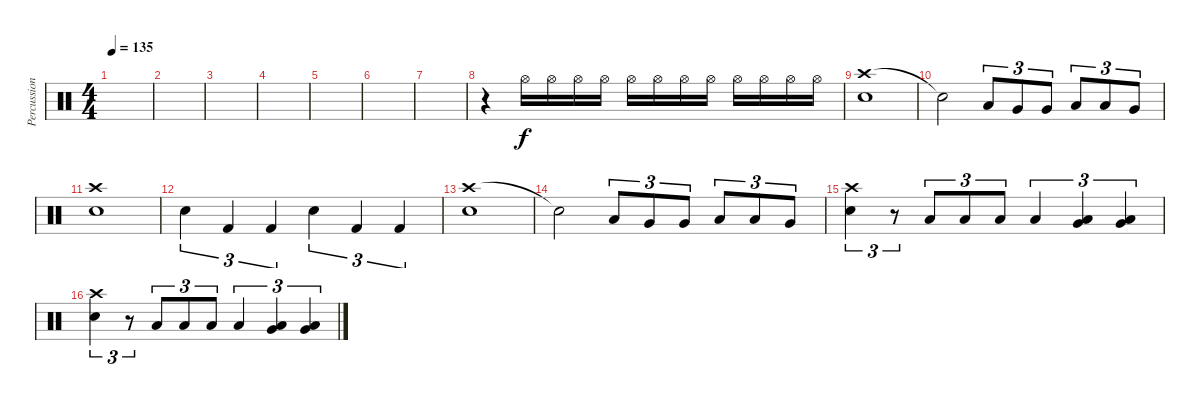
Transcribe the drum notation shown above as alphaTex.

\track ("Percussions" "Percussion") {instrument percussion}
\staff {score}
\articulation defaults
\ts (4 4)
\tempo 135
\clef neutral
\ks c
|
|
|
|
|
|
|
r.4{volume 0} "Hi-Hat (open)".16{volume 12} "Hi-Hat (open)".16 "Hi-Hat (open)".16 "Hi-Hat (open)".16 "Hi-Hat (open)".16 "Hi-Hat (open)".16 "Hi-Hat (open)".16 "Hi-Hat (open)".16 "Hi-Hat (open)".16 "Hi-Hat (open)".16 "Hi-Hat (open)".16 "Hi-Hat (open)".16 |
("Crash high (hit)" "Snare (hit) 2").1{volume 13} |
"Snare (hit)"{t}.2 "Low Floor Tom (hit)".8{tu (3 2)} "Very Low Tom (hit)".8{tu (3 2)} "Very Low Tom (hit)".8{tu (3 2)} "Low Tom (hit)".8{tu (3 2)} "Low Tom (hit)".8{tu (3 2)} "Very Low Tom (hit)".8{tu (3 2)} |
("Snare (hit) 2" "Crash high (hit)").1 |
"Snare (hit) 2".4{tu (3 2)} "Kick (hit) 2".4{tu (3 2)} "Kick (hit) 2".4{tu (3 2)} "Snare (hit) 2".4{tu (3 2)} "Kick (hit) 2".4{tu (3 2)} "Kick (hit) 2".4{tu (3 2)} |
("Crash high (hit)" "Snare (hit) 2").1{volume 13} |
"Snare (hit)"{t}.2 "Low Floor Tom (hit)".8{tu (3 2)} "Very Low Tom (hit)".8{tu (3 2)} "Very Low Tom (hit)".8{tu (3 2)} "Low Tom (hit)".8{tu (3 2)} "Low Tom (hit)".8{tu (3 2)} "Very Low Tom (hit)".8{tu (3 2)} |
("Crash high (hit)" "Snare (hit) 2").4{tu (3 2)} r.8{tu (3 2)} "Low Floor Tom (hit)".8{tu (3 2)} "Low Floor Tom (hit)".8{tu (3 2)} "Low Floor Tom (hit)".8{tu (3 2)} "Low Floor Tom (hit)".4{tu (3 2)} ("Very Low Tom (hit)" "Low Floor Tom (hit)").4{tu (3 2)} ("Very Low Tom (hit)" "Low Floor Tom (hit)").4{tu (3 2)} |
("Crash high (hit)" "Snare (hit) 2").4{tu (3 2)} r.8{tu (3 2)} "Low Floor Tom (hit)".8{tu (3 2)} "Low Floor Tom (hit)".8{tu (3 2)} "Low Floor Tom (hit)".8{tu (3 2)} "Low Floor Tom (hit)".4{tu (3 2)} ("Very Low Tom (hit)" "Low Floor Tom (hit)").4{tu (3 2)} ("Very Low Tom (hit)" "Low Floor Tom (hit)").4{tu (3 2)}
